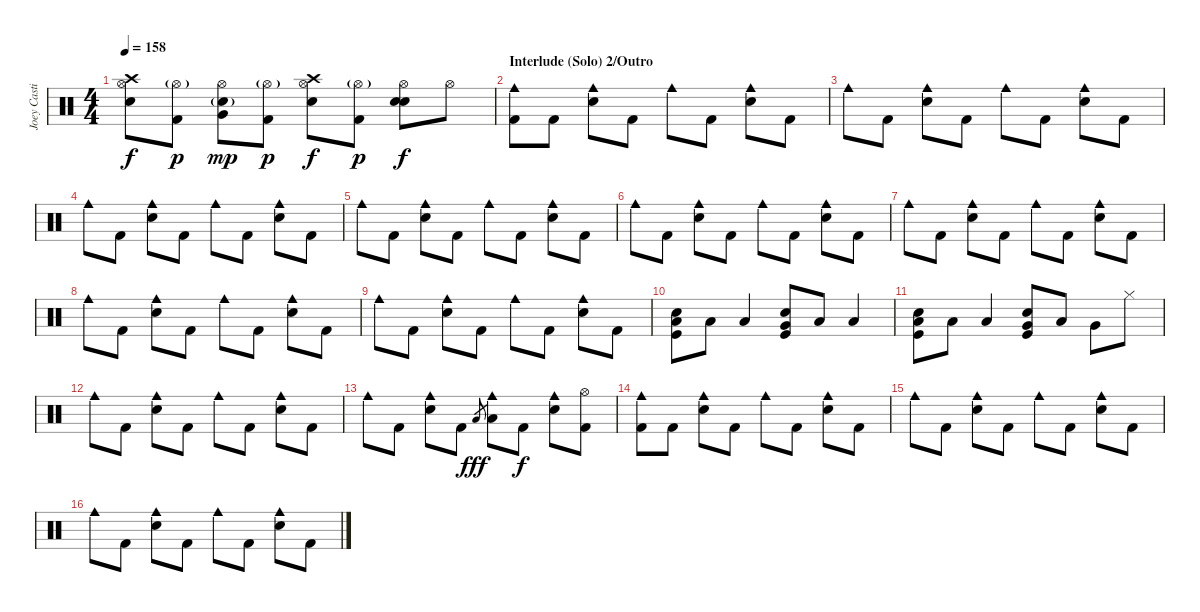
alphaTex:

\track ("Joey Castillo" "Joey Casti") {instrument percussion}
\staff {score}
\articulation defaults
\ts (4 4)
\tempo 158
\clef neutral
\ks c
("Hi-Hat (open)" "Crash high (hit)" "Electric Snare (hit)").8{dy f} ("Hi-Hat (open)"{g} "Kick (hit) 2").8{dy p} ("Hi-Hat (open)" "Very Low Tom (hit)" "Electric Snare (hit)"{g}).8{dy mp} ("Hi-Hat (open)"{g} "Kick (hit) 2").8{dy p} ("Hi-Hat (open)" "Crash high (hit)" "Electric Snare (hit)").8{dy f} ("Hi-Hat (open)"{g} "Kick (hit) 2").8{dy p} ("Hi-Hat (open)" "Electric Snare (hit)" "Electric Snare (hit)").8{dy f} "Hi-Hat (open)".8 |
\section ("" "Interlude (Solo) 2/Outro")
("Cowbell medium (hit)" "Kick (hit) 2").8 "Kick (hit) 2".8 ("Cowbell medium (hit)" "Electric Snare (hit)").8 "Kick (hit) 2".8 "Cowbell medium (hit)".8 "Kick (hit) 2".8 ("Cowbell medium (hit)" "Electric Snare (hit)").8 "Kick (hit) 2".8 |
"Cowbell medium (hit)".8 "Kick (hit) 2".8 ("Cowbell medium (hit)" "Electric Snare (hit)").8 "Kick (hit) 2".8 "Cowbell medium (hit)".8 "Kick (hit) 2".8 ("Cowbell medium (hit)" "Electric Snare (hit)").8 "Kick (hit) 2".8 |
"Cowbell medium (hit)".8 "Kick (hit) 2".8 ("Cowbell medium (hit)" "Electric Snare (hit)").8 "Kick (hit) 2".8 "Cowbell medium (hit)".8 "Kick (hit) 2".8 ("Cowbell medium (hit)" "Electric Snare (hit)").8 "Kick (hit) 2".8 |
"Cowbell medium (hit)".8 "Kick (hit) 2".8 ("Cowbell medium (hit)" "Electric Snare (hit)").8 "Kick (hit) 2".8 "Cowbell medium (hit)".8 "Kick (hit) 2".8 ("Cowbell medium (hit)" "Electric Snare (hit)").8 "Kick (hit) 2".8 |
"Cowbell medium (hit)".8 "Kick (hit) 2".8 ("Cowbell medium (hit)" "Electric Snare (hit)").8 "Kick (hit) 2".8 "Cowbell medium (hit)".8 "Kick (hit) 2".8 ("Cowbell medium (hit)" "Electric Snare (hit)").8 "Kick (hit) 2".8 |
"Cowbell medium (hit)".8 "Kick (hit) 2".8 ("Cowbell medium (hit)" "Electric Snare (hit)").8 "Kick (hit) 2".8 "Cowbell medium (hit)".8 "Kick (hit) 2".8 ("Cowbell medium (hit)" "Electric Snare (hit)").8 "Kick (hit) 2".8 |
"Cowbell medium (hit)".8 "Kick (hit) 2".8 ("Cowbell medium (hit)" "Electric Snare (hit)").8 "Kick (hit) 2".8 "Cowbell medium (hit)".8 "Kick (hit) 2".8 ("Cowbell medium (hit)" "Electric Snare (hit)").8 "Kick (hit) 2".8 |
"Cowbell medium (hit)".8 "Kick (hit) 2".8 ("Cowbell medium (hit)" "Electric Snare (hit)").8 "Kick (hit) 2".8 "Cowbell medium (hit)".8 "Kick (hit) 2".8 ("Cowbell medium (hit)" "Electric Snare (hit)").8 "Kick (hit) 2".8 |
("Electric Snare (hit)" "Kick (hit)" "Low Floor Tom (hit)").8 "Low Floor Tom (hit)".8 "Low Floor Tom (hit)".4 ("Electric Snare (hit)" "Kick (hit)" "Very Low Tom (hit)").8 "Low Floor Tom (hit)".8 "Low Floor Tom (hit)".4 |
("Electric Snare (hit)" "Kick (hit)" "Low Floor Tom (hit)").8 "Low Floor Tom (hit)".8 "Low Floor Tom (hit)".4 ("Electric Snare (hit)" "Kick (hit)" "Very Low Tom (hit)").8 "Low Floor Tom (hit)".8 "Very Low Tom (hit)".8 "Hi-Hat (closed)".8 |
"Cowbell medium (hit)".8 "Kick (hit) 2".8 ("Cowbell medium (hit)" "Electric Snare (hit)").8 "Kick (hit) 2".8 "Cowbell medium (hit)".8 "Kick (hit) 2".8 ("Cowbell medium (hit)" "Electric Snare (hit)").8 "Kick (hit) 2".8 |
"Cowbell medium (hit)".8 "Kick (hit) 2".8 ("Cowbell medium (hit)" "Electric Snare (hit)").8 "Kick (hit) 2".8 "Low Tom (hit)".8{gr dy fff} ("Cowbell medium (hit)" "Low Tom (hit)").8 "Kick (hit) 2".8{dy f} ("Cowbell medium (hit)" "Electric Snare (hit)").8 ("Hi-Hat (open)" "Kick (hit) 2").8 |
("Cowbell medium (hit)" "Kick (hit) 2").8 "Kick (hit) 2".8 ("Cowbell medium (hit)" "Electric Snare (hit)").8 "Kick (hit) 2".8 "Cowbell medium (hit)".8 "Kick (hit) 2".8 ("Cowbell medium (hit)" "Electric Snare (hit)").8 "Kick (hit) 2".8 |
"Cowbell medium (hit)".8 "Kick (hit) 2".8 ("Cowbell medium (hit)" "Electric Snare (hit)").8 "Kick (hit) 2".8 "Cowbell medium (hit)".8 "Kick (hit) 2".8 ("Cowbell medium (hit)" "Electric Snare (hit)").8 "Kick (hit) 2".8 |
"Cowbell medium (hit)".8 "Kick (hit) 2".8 ("Cowbell medium (hit)" "Electric Snare (hit)").8 "Kick (hit) 2".8 "Cowbell medium (hit)".8 "Kick (hit) 2".8 ("Cowbell medium (hit)" "Electric Snare (hit)").8 "Kick (hit) 2".8
